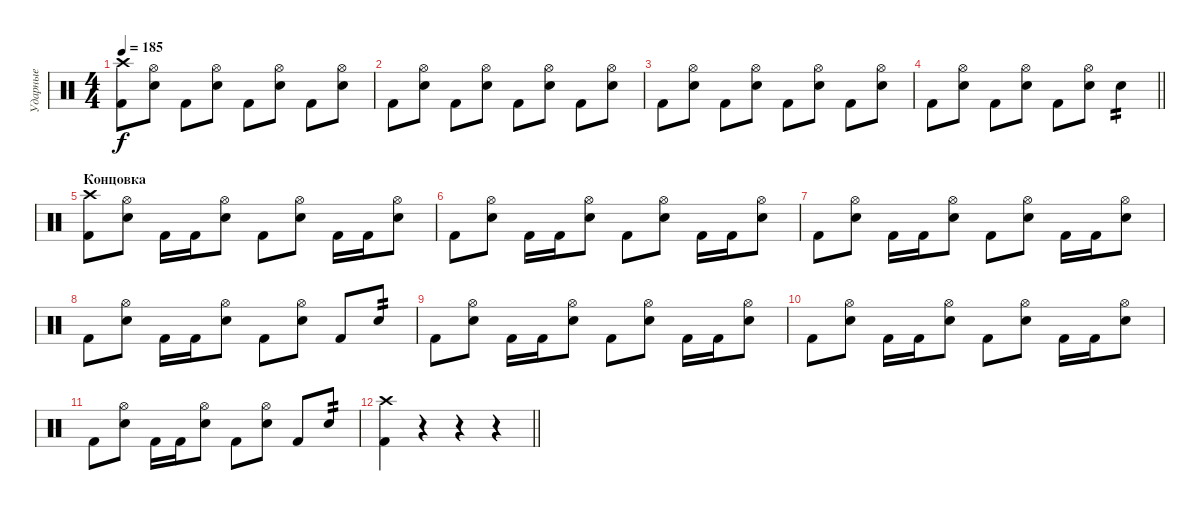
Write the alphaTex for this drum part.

\track ("Ударные" "Ударные") {instrument percussion}
\staff {score}
\articulation defaults
\ts (4 4)
\tempo 185
\clef neutral
\ks c
("Crash high (hit)" "Kick (hit) 2").8{dy f} ("Hi-Hat (open)" "Electric Snare (hit)").8 "Kick (hit) 2".8 ("Hi-Hat (open)" "Electric Snare (hit)").8 "Kick (hit) 2".8 ("Hi-Hat (open)" "Electric Snare (hit)").8 "Kick (hit) 2".8 ("Hi-Hat (open)" "Electric Snare (hit)").8 |
"Kick (hit) 2".8 ("Hi-Hat (open)" "Electric Snare (hit)").8 "Kick (hit) 2".8 ("Hi-Hat (open)" "Electric Snare (hit)").8 "Kick (hit) 2".8 ("Hi-Hat (open)" "Electric Snare (hit)").8 "Kick (hit) 2".8 ("Hi-Hat (open)" "Electric Snare (hit)").8 |
"Kick (hit) 2".8 ("Hi-Hat (open)" "Electric Snare (hit)").8 "Kick (hit) 2".8 ("Hi-Hat (open)" "Electric Snare (hit)").8 "Kick (hit) 2".8 ("Hi-Hat (open)" "Electric Snare (hit)").8 "Kick (hit) 2".8 ("Hi-Hat (open)" "Electric Snare (hit)").8 |
\barLineRight lightlight "Kick (hit) 2".8
("Hi-Hat (open)" "Electric Snare (hit)").8 "Kick (hit) 2".8 ("Hi-Hat (open)" "Electric Snare (hit)").8 "Kick (hit) 2".8 ("Hi-Hat (open)" "Electric Snare (hit)").8 "Electric Snare (hit)".4{tp 2} |
\section ("" "Концовка")
("Crash high (hit)" "Kick (hit) 2").8 ("Hi-Hat (open)" "Electric Snare (hit)").8 "Kick (hit) 2".16 "Kick (hit) 2".16 ("Hi-Hat (open)" "Electric Snare (hit)").8 "Kick (hit) 2".8 ("Hi-Hat (open)" "Electric Snare (hit)").8 "Kick (hit) 2".16 "Kick (hit) 2".16 ("Hi-Hat (open)" "Electric Snare (hit)").8 |
"Kick (hit) 2".8 ("Hi-Hat (open)" "Electric Snare (hit)").8 "Kick (hit) 2".16 "Kick (hit) 2".16 ("Hi-Hat (open)" "Electric Snare (hit)").8 "Kick (hit) 2".8 ("Hi-Hat (open)" "Electric Snare (hit)").8 "Kick (hit) 2".16 "Kick (hit) 2".16 ("Hi-Hat (open)" "Electric Snare (hit)").8 |
"Kick (hit) 2".8 ("Hi-Hat (open)" "Electric Snare (hit)").8 "Kick (hit) 2".16 "Kick (hit) 2".16 ("Hi-Hat (open)" "Electric Snare (hit)").8 "Kick (hit) 2".8 ("Hi-Hat (open)" "Electric Snare (hit)").8 "Kick (hit) 2".16 "Kick (hit) 2".16 ("Hi-Hat (open)" "Electric Snare (hit)").8 |
"Kick (hit) 2".8 ("Hi-Hat (open)" "Electric Snare (hit)").8 "Kick (hit) 2".16 "Kick (hit) 2".16 ("Hi-Hat (open)" "Electric Snare (hit)").8 "Kick (hit) 2".8 ("Hi-Hat (open)" "Electric Snare (hit)").8 "Kick (hit) 2".8 "Electric Snare (hit)".8{tp 2} |
"Kick (hit) 2".8 ("Hi-Hat (open)" "Electric Snare (hit)").8 "Kick (hit) 2".16 "Kick (hit) 2".16 ("Hi-Hat (open)" "Electric Snare (hit)").8 "Kick (hit) 2".8 ("Hi-Hat (open)" "Electric Snare (hit)").8 "Kick (hit) 2".16 "Kick (hit) 2".16 ("Hi-Hat (open)" "Electric Snare (hit)").8 |
"Kick (hit) 2".8 ("Hi-Hat (open)" "Electric Snare (hit)").8 "Kick (hit) 2".16 "Kick (hit) 2".16 ("Hi-Hat (open)" "Electric Snare (hit)").8 "Kick (hit) 2".8 ("Hi-Hat (open)" "Electric Snare (hit)").8 "Kick (hit) 2".16 "Kick (hit) 2".16 ("Hi-Hat (open)" "Electric Snare (hit)").8 |
"Kick (hit) 2".8 ("Hi-Hat (open)" "Electric Snare (hit)").8 "Kick (hit) 2".16 "Kick (hit) 2".16 ("Hi-Hat (open)" "Electric Snare (hit)").8 "Kick (hit) 2".8 ("Hi-Hat (open)" "Electric Snare (hit)").8 "Kick (hit) 2".8 "Electric Snare (hit)".8{tp 2} |
\barLineRight lightlight
("Crash high (hit)" "Kick (hit) 2").4 r.4 r.4 r.4
